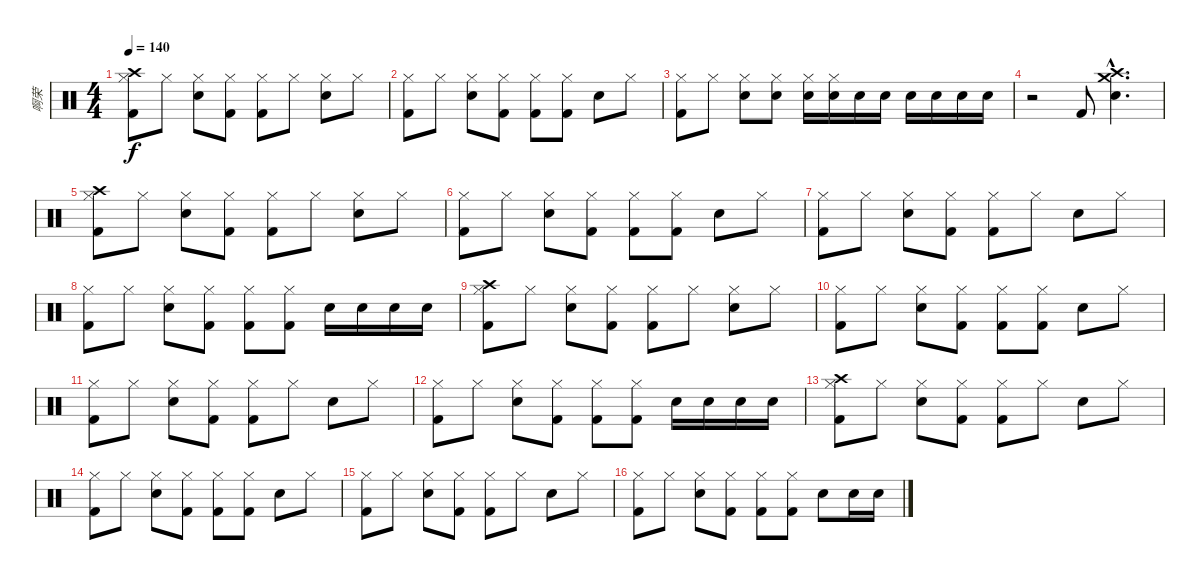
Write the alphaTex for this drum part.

\track ("啊荣" "啊荣") {instrument percussion}
\staff {score}
\articulation defaults
\ts (4 4)
\tempo 140
\clef neutral
\ks c
("Kick (hit) 2" "Crash high (hit)" "Hi-Hat (closed)").8{dy f} "Hi-Hat (closed)".8 ("Hi-Hat (closed)" "Electric Snare (hit)").8 ("Hi-Hat (closed)" "Kick (hit) 2").8 ("Hi-Hat (closed)" "Kick (hit) 2").8 "Hi-Hat (closed)".8 ("Hi-Hat (closed)" "Electric Snare (hit)").8 "Hi-Hat (closed)".8 |
("Kick (hit) 2" "Hi-Hat (closed)").8 "Hi-Hat (closed)".8 ("Hi-Hat (closed)" "Electric Snare (hit)").8 ("Hi-Hat (closed)" "Kick (hit) 2").8 ("Hi-Hat (closed)" "Kick (hit) 2").8 ("Hi-Hat (closed)" "Kick (hit) 2").8 "Electric Snare (hit)".8 "Hi-Hat (closed)".8 |
("Kick (hit) 2" "Hi-Hat (closed)").8 "Hi-Hat (closed)".8 ("Hi-Hat (closed)" "Electric Snare (hit)").8 ("Hi-Hat (closed)" "Electric Snare (hit)").8 ("Hi-Hat (closed)" "Electric Snare (hit)").16 ("Hi-Hat (closed)" "Electric Snare (hit)").16 "Electric Snare (hit)".16 "Electric Snare (hit)".16 "Electric Snare (hit)".16 "Electric Snare (hit)".16 "Electric Snare (hit)".16 "Electric Snare (hit)".16 |
r.2 "Kick (hit) 2".8 ("Crash high (hit)"{hac} "Electric Snare (hit)"{hac} "Crash medium (hit)"{hac}).4{d} |
("Kick (hit) 2" "Crash high (hit)" "Hi-Hat (closed)").8 "Hi-Hat (closed)".8 ("Hi-Hat (closed)" "Electric Snare (hit)").8 ("Hi-Hat (closed)" "Kick (hit) 2").8 ("Hi-Hat (closed)" "Kick (hit) 2").8 "Hi-Hat (closed)".8 ("Hi-Hat (closed)" "Electric Snare (hit)").8 "Hi-Hat (closed)".8 |
("Kick (hit) 2" "Hi-Hat (closed)").8 "Hi-Hat (closed)".8 ("Hi-Hat (closed)" "Electric Snare (hit)").8 ("Hi-Hat (closed)" "Kick (hit) 2").8 ("Hi-Hat (closed)" "Kick (hit) 2").8 ("Hi-Hat (closed)" "Kick (hit) 2").8 "Electric Snare (hit)".8 "Hi-Hat (closed)".8 |
("Kick (hit) 2" "Hi-Hat (closed)").8 "Hi-Hat (closed)".8 ("Hi-Hat (closed)" "Electric Snare (hit)").8 ("Hi-Hat (closed)" "Kick (hit) 2").8 ("Hi-Hat (closed)" "Kick (hit) 2").8 "Hi-Hat (closed)".8 "Electric Snare (hit)".8 "Hi-Hat (closed)".8 |
("Kick (hit) 2" "Hi-Hat (closed)").8 "Hi-Hat (closed)".8 ("Hi-Hat (closed)" "Electric Snare (hit)").8 ("Hi-Hat (closed)" "Kick (hit) 2").8 ("Hi-Hat (closed)" "Kick (hit) 2").8 ("Hi-Hat (closed)" "Kick (hit) 2").8 "Electric Snare (hit)".16 "Electric Snare (hit)".16 "Electric Snare (hit)".16 "Electric Snare (hit)".16 |
("Kick (hit) 2" "Crash high (hit)" "Hi-Hat (closed)").8 "Hi-Hat (closed)".8 ("Hi-Hat (closed)" "Electric Snare (hit)").8 ("Hi-Hat (closed)" "Kick (hit) 2").8 ("Hi-Hat (closed)" "Kick (hit) 2").8 "Hi-Hat (closed)".8 ("Hi-Hat (closed)" "Electric Snare (hit)").8 "Hi-Hat (closed)".8 |
("Kick (hit) 2" "Hi-Hat (closed)").8 "Hi-Hat (closed)".8 ("Hi-Hat (closed)" "Electric Snare (hit)").8 ("Hi-Hat (closed)" "Kick (hit) 2").8 ("Hi-Hat (closed)" "Kick (hit) 2").8 ("Hi-Hat (closed)" "Kick (hit) 2").8 "Electric Snare (hit)".8 "Hi-Hat (closed)".8 |
("Kick (hit) 2" "Hi-Hat (closed)").8 "Hi-Hat (closed)".8 ("Hi-Hat (closed)" "Electric Snare (hit)").8 ("Hi-Hat (closed)" "Kick (hit) 2").8 ("Hi-Hat (closed)" "Kick (hit) 2").8 "Hi-Hat (closed)".8 "Electric Snare (hit)".8 "Hi-Hat (closed)".8 |
("Kick (hit) 2" "Hi-Hat (closed)").8 "Hi-Hat (closed)".8 ("Hi-Hat (closed)" "Electric Snare (hit)").8 ("Hi-Hat (closed)" "Kick (hit) 2").8 ("Hi-Hat (closed)" "Kick (hit) 2").8 ("Hi-Hat (closed)" "Kick (hit) 2").8 "Electric Snare (hit)".16 "Electric Snare (hit)".16 "Electric Snare (hit)".16 "Electric Snare (hit)".16 |
("Kick (hit) 2" "Crash high (hit)" "Hi-Hat (closed)").8 "Hi-Hat (closed)".8 ("Hi-Hat (closed)" "Electric Snare (hit)").8 ("Hi-Hat (closed)" "Kick (hit) 2").8 ("Hi-Hat (closed)" "Kick (hit) 2").8 "Hi-Hat (closed)".8 "Electric Snare (hit)".8 "Hi-Hat (closed)".8 |
("Kick (hit) 2" "Hi-Hat (closed)").8 "Hi-Hat (closed)".8 ("Hi-Hat (closed)" "Electric Snare (hit)").8 ("Hi-Hat (closed)" "Kick (hit) 2").8 ("Hi-Hat (closed)" "Kick (hit) 2").8 ("Hi-Hat (closed)" "Kick (hit) 2").8 "Electric Snare (hit)".8 "Hi-Hat (closed)".8 |
("Kick (hit) 2" "Hi-Hat (closed)").8 "Hi-Hat (closed)".8 ("Hi-Hat (closed)" "Electric Snare (hit)").8 ("Hi-Hat (closed)" "Kick (hit) 2").8 ("Hi-Hat (closed)" "Kick (hit) 2").8 "Hi-Hat (closed)".8 "Electric Snare (hit)".8 "Hi-Hat (closed)".8 |
("Kick (hit) 2" "Hi-Hat (closed)").8 "Hi-Hat (closed)".8 ("Hi-Hat (closed)" "Electric Snare (hit)").8 ("Hi-Hat (closed)" "Kick (hit) 2").8 ("Hi-Hat (closed)" "Kick (hit) 2").8 ("Hi-Hat (closed)" "Kick (hit) 2").8 "Electric Snare (hit)".8 "Electric Snare (hit)".16 "Electric Snare (hit)".16
